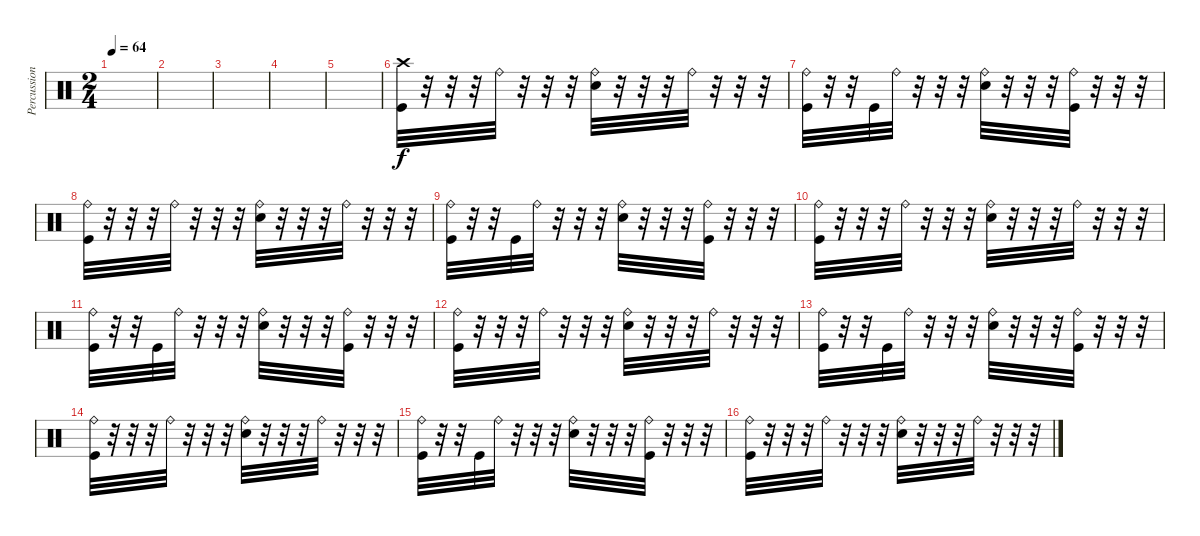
\track ("Percussion" "Percussion") {instrument percussion}
\staff {score}
\articulation defaults
\ts (2 4)
\tempo 64
\clef neutral
\ks c
|
|
|
|
|
("Crash high (hit)" "Kick (hit)").32 r.32 r.32 r.32 "Ride (bell)".32 r.32 r.32 r.32 ("Ride (bell)" "Electric Snare (hit)").32 r.32 r.32 r.32 "Ride (bell)".32 r.32 r.32 r.32 |
("Ride (bell)" "Kick (hit)").32 r.32 r.32 "Kick (hit)".32 "Ride (bell)".32 r.32 r.32 r.32 ("Ride (bell)" "Electric Snare (hit)").32 r.32 r.32 r.32 ("Ride (bell)" "Kick (hit)").32 r.32 r.32 r.32 |
("Ride (bell)" "Kick (hit)").32 r.32 r.32 r.32 "Ride (bell)".32 r.32 r.32 r.32 ("Ride (bell)" "Electric Snare (hit)").32 r.32 r.32 r.32 "Ride (bell)".32 r.32 r.32 r.32 |
("Ride (bell)" "Kick (hit)").32 r.32 r.32 "Kick (hit)".32 "Ride (bell)".32 r.32 r.32 r.32 ("Ride (bell)" "Electric Snare (hit)").32 r.32 r.32 r.32 ("Ride (bell)" "Kick (hit)").32 r.32 r.32 r.32 |
("Ride (bell)" "Kick (hit)").32 r.32 r.32 r.32 "Ride (bell)".32 r.32 r.32 r.32 ("Ride (bell)" "Electric Snare (hit)").32 r.32 r.32 r.32 "Ride (bell)".32 r.32 r.32 r.32 |
("Ride (bell)" "Kick (hit)").32 r.32 r.32 "Kick (hit)".32 "Ride (bell)".32 r.32 r.32 r.32 ("Ride (bell)" "Electric Snare (hit)").32 r.32 r.32 r.32 ("Ride (bell)" "Kick (hit)").32 r.32 r.32 r.32 |
("Ride (bell)" "Kick (hit)").32 r.32 r.32 r.32 "Ride (bell)".32 r.32 r.32 r.32 ("Ride (bell)" "Electric Snare (hit)").32 r.32 r.32 r.32 "Ride (bell)".32 r.32 r.32 r.32 |
("Ride (bell)" "Kick (hit)").32 r.32 r.32 "Kick (hit)".32 "Ride (bell)".32 r.32 r.32 r.32 ("Ride (bell)" "Electric Snare (hit)").32 r.32 r.32 r.32 ("Ride (bell)" "Kick (hit)").32 r.32 r.32 r.32 |
("Ride (bell)" "Kick (hit)").32 r.32 r.32 r.32 "Ride (bell)".32 r.32 r.32 r.32 ("Ride (bell)" "Electric Snare (hit)").32 r.32 r.32 r.32 "Ride (bell)".32 r.32 r.32 r.32 |
("Ride (bell)" "Kick (hit)").32 r.32 r.32 "Kick (hit)".32 "Ride (bell)".32 r.32 r.32 r.32 ("Ride (bell)" "Electric Snare (hit)").32 r.32 r.32 r.32 ("Ride (bell)" "Kick (hit)").32 r.32 r.32 r.32 |
("Ride (bell)" "Kick (hit)").32 r.32 r.32 r.32 "Ride (bell)".32 r.32 r.32 r.32 ("Ride (bell)" "Electric Snare (hit)").32 r.32 r.32 r.32 "Ride (bell)".32 r.32 r.32 r.32
